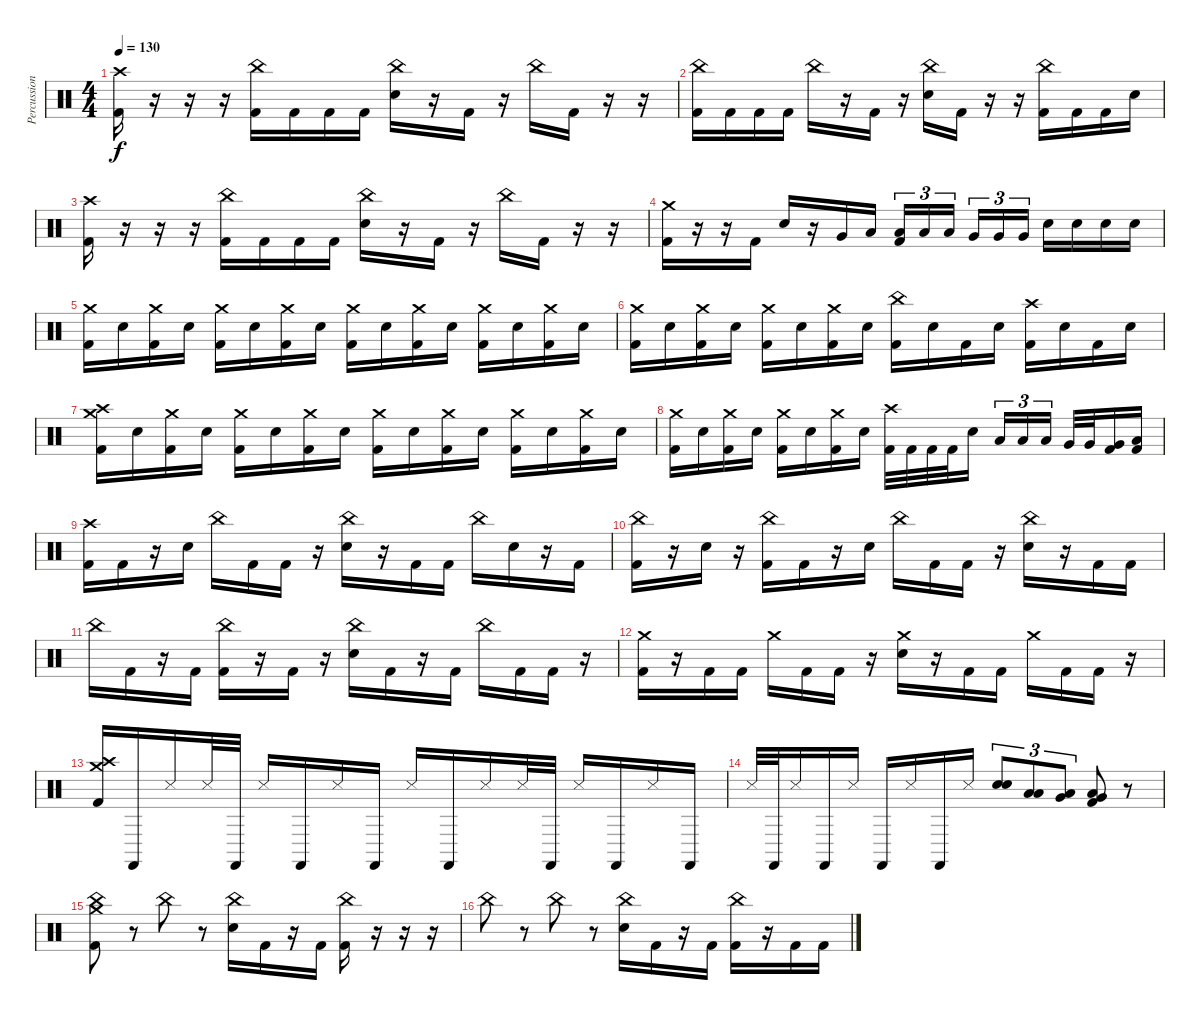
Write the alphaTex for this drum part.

\track ("Percussion" "Percussion") {instrument percussion}
\staff {score}
\articulation defaults
\ts (4 4)
\tempo 130
\clef neutral
\ks c
("Crash high (hit)" "Kick (hit) 2").16{dy f} r.16 r.16 r.16 ("China (hit)" "Kick (hit) 2").16 "Kick (hit) 2".16 "Kick (hit) 2".16 "Kick (hit) 2".16 ("China (hit)" "Electric Snare (hit)").16 r.16 "Kick (hit) 2".16 r.16 "China (hit)".16 "Kick (hit) 2".16 r.16 r.16 |
("China (hit)" "Kick (hit) 2").16 "Kick (hit) 2".16 "Kick (hit) 2".16 "Kick (hit) 2".16 "China (hit)".16 r.16 "Kick (hit) 2".16 r.16 ("China (hit)" "Electric Snare (hit)").16 "Kick (hit) 2".16 r.16 r.16 ("China (hit)" "Kick (hit) 2").16 "Kick (hit) 2".16 "Kick (hit) 2".16 "Electric Snare (hit)".16 |
("Crash high (hit)" "Kick (hit) 2").16 r.16 r.16 r.16 ("China (hit)" "Kick (hit) 2").16 "Kick (hit) 2".16 "Kick (hit) 2".16 "Kick (hit) 2".16 ("China (hit)" "Electric Snare (hit)").16 r.16 "Kick (hit) 2".16 r.16 "China (hit)".16 "Kick (hit) 2".16 r.16 r.16 |
("Crash medium (hit)" "Kick (hit) 2").16 r.16 r.16 "Kick (hit) 2".16 "Electric Snare (hit)".16 r.16 "Very Low Tom (hit)".16 "Low Floor Tom (hit)".16 ("Low Tom (hit)" "Kick (hit) 2").16{tu (3 2)} "Low Tom (hit)".16{tu (3 2)} "Low Tom (hit)".16{tu (3 2) beam splitsecondary} "Very Low Tom (hit)".16{tu (3 2)} "Very Low Tom (hit)".16{tu (3 2)} "Very Low Tom (hit)".16{tu (3 2)} "Electric Snare (hit)".16 "Electric Snare (hit)".16 "Electric Snare (hit)".16 "Electric Snare (hit)".16 |
("Crash medium (hit)" "Kick (hit) 2").16 "Electric Snare (hit)".16 ("Crash medium (hit)" "Kick (hit) 2").16 "Electric Snare (hit)".16 ("Crash medium (hit)" "Kick (hit) 2").16 "Electric Snare (hit)".16 ("Crash medium (hit)" "Kick (hit) 2").16 "Electric Snare (hit)".16 ("Crash medium (hit)" "Kick (hit) 2").16 "Electric Snare (hit)".16 ("Crash medium (hit)" "Kick (hit) 2").16 "Electric Snare (hit)".16 ("Crash medium (hit)" "Kick (hit) 2").16 "Electric Snare (hit)".16 ("Crash medium (hit)" "Kick (hit) 2").16 "Electric Snare (hit)".16 |
("Crash medium (hit)" "Kick (hit) 2").16 "Electric Snare (hit)".16 ("Crash medium (hit)" "Kick (hit) 2").16 "Electric Snare (hit)".16 ("Crash medium (hit)" "Kick (hit) 2").16 "Electric Snare (hit)".16 ("Crash medium (hit)" "Kick (hit) 2").16 "Electric Snare (hit)".16 ("China (hit)" "Kick (hit) 2").16 "Electric Snare (hit)".16 "Kick (hit) 2".16 "Electric Snare (hit)".16 ("Crash high (hit)" "Kick (hit) 2").16 "Electric Snare (hit)".16 "Kick (hit) 2".16 "Electric Snare (hit)".16 |
("Crash high (hit)" "Crash medium (hit)" "Kick (hit) 2").16 "Electric Snare (hit)".16 ("Crash medium (hit)" "Kick (hit) 2").16 "Electric Snare (hit)".16 ("Crash medium (hit)" "Kick (hit) 2").16 "Electric Snare (hit)".16 ("Crash medium (hit)" "Kick (hit) 2").16 "Electric Snare (hit)".16 ("Crash medium (hit)" "Kick (hit) 2").16 "Electric Snare (hit)".16 ("Crash medium (hit)" "Kick (hit) 2").16 "Electric Snare (hit)".16 ("Crash medium (hit)" "Kick (hit) 2").16 "Electric Snare (hit)".16 ("Crash medium (hit)" "Kick (hit) 2").16 "Electric Snare (hit)".16 |
("Crash medium (hit)" "Kick (hit) 2").16 "Electric Snare (hit)".16 ("Crash medium (hit)" "Kick (hit) 2").16 "Electric Snare (hit)".16 ("Crash medium (hit)" "Kick (hit) 2").16 "Electric Snare (hit)".16 ("Crash medium (hit)" "Kick (hit) 2").16 "Electric Snare (hit)".16 ("Crash high (hit)" "Kick (hit) 2").32 "Kick (hit) 2".32 "Kick (hit) 2".32 "Kick (hit) 2".32 "Electric Snare (hit)".16{beam splitsecondary} "Low Tom (hit)".16{tu (3 2)} "Low Tom (hit)".16{tu (3 2)} "Low Tom (hit)".16{tu (3 2) beam splitsecondary} "Very Low Tom (hit)".32 "Very Low Tom (hit)".32 ("Very Low Tom (hit)" "Kick (hit) 2").16 ("Low Floor Tom (hit)" "Kick (hit) 2").16 |
("Crash high (hit)" "Kick (hit) 2").16 "Kick (hit) 2".16 r.16 "Electric Snare (hit)".16 "China (hit)".16 "Kick (hit) 2".16 "Kick (hit) 2".16 r.16 ("China (hit)" "Electric Snare (hit)").16 r.16 "Kick (hit) 2".16 "Kick (hit) 2".16 "China (hit)".16 "Electric Snare (hit)".16 r.16 "Kick (hit) 2".16 |
("China (hit)" "Kick (hit) 2").16 r.16 "Electric Snare (hit)".16 r.16 ("China (hit)" "Kick (hit) 2").16 "Kick (hit) 2".16 r.16 "Electric Snare (hit)".16 "China (hit)".16 "Kick (hit) 2".16 "Kick (hit) 2".16 r.16 ("China (hit)" "Electric Snare (hit)").16 r.16 "Kick (hit) 2".16 "Kick (hit) 2".16 |
"China (hit)".16 "Kick (hit) 2".16 r.16 "Kick (hit) 2".16 ("China (hit)" "Kick (hit) 2").16 r.16 "Kick (hit) 2".16 r.16 ("China (hit)" "Electric Snare (hit)").16 "Kick (hit) 2".16 r.16 "Kick (hit) 2".16 "China (hit)".16 "Kick (hit) 2".16 "Kick (hit) 2".16 r.16 |
("Crash medium (hit)" "Kick (hit) 2").16 r.16 "Kick (hit) 2".16 "Kick (hit) 2".16 "Crash medium (hit)".16 "Kick (hit) 2".16 "Kick (hit) 2".16 r.16 ("Crash medium (hit)" "Electric Snare (hit)").16 r.16 "Kick (hit) 2".16 "Kick (hit) 2".16 "Crash medium (hit)".16 "Kick (hit) 2".16 "Kick (hit) 2".16 r.16 |
("Crash medium (hit)" "Crash high (hit)" "Kick (hit) 2").16{volume 13} "Castanets (hit)".16 "Snare (side stick) 3".16 "Metronome (hit)".32 "Castanets (hit)".32 "Snare (side stick) 3".16 "Castanets (hit)".16 "Snare (side stick) 3".16 "Castanets (hit)".16 "Snare (side stick) 3".16 "Castanets (hit)".16 "Snare (side stick) 3".16 "Metronome (hit)".32 "Castanets (hit)".32 "Snare (side stick) 3".16 "Castanets (hit)".16 "Snare (side stick) 3".16 "Castanets (hit)".16 |
"Metronome (hit)".32 "Castanets (hit)".32 "Snare (side stick) 3".16 "Castanets (hit)".16 "Snare (side stick) 3".16 "Castanets (hit)".16 "Snare (side stick) 3".16 "Castanets (hit)".16 "Snare (side stick) 3".16 ("Snare (hit) 2" "Electric Snare (hit)").8{tu (3 2) volume 14} ("Low Tom (hit)" "Low Floor Tom (hit)").8{tu (3 2)} ("Very Low Tom (hit)" "Low Floor Tom (hit)").8{tu (3 2)} ("Very Low Tom (hit)" "Low Floor Tom (hit)" "Kick (hit) 2").8 r.8 |
("China (hit)" "Crash medium (hit)" "Kick (hit) 2").8 r.8 "China (hit)".8 r.8 ("China (hit)" "Electric Snare (hit)").16 "Kick (hit) 2".16 r.16 "Kick (hit) 2".16 ("China (hit)" "Kick (hit) 2").16 r.16 r.16 r.16 |
"China (hit)".8 r.8 "China (hit)".8 r.8 ("China (hit)" "Electric Snare (hit)").16 "Kick (hit) 2".16 r.16 "Kick (hit) 2".16 ("China (hit)" "Kick (hit) 2").16 r.16 "Kick (hit) 2".16 "Kick (hit) 2".16
